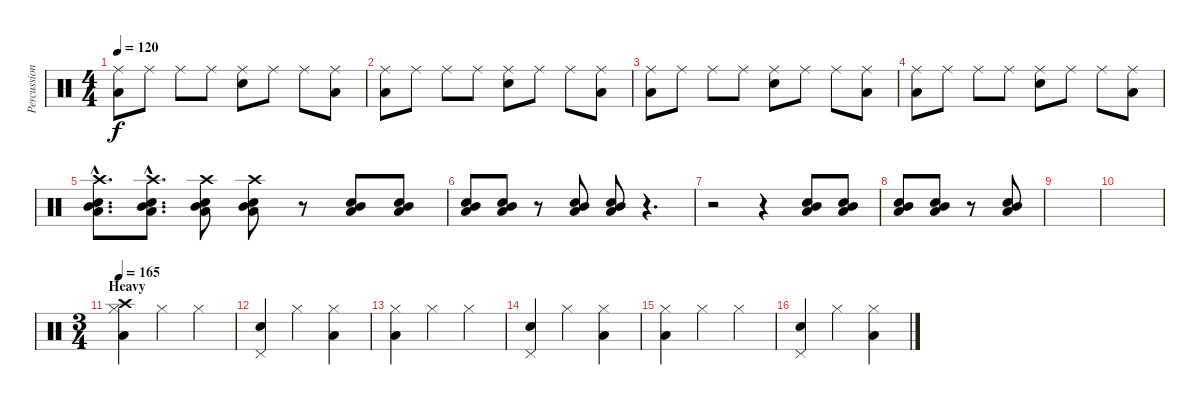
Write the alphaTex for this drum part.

\track ("Percussions" "Percussion") {instrument percussion}
\staff {score}
\articulation defaults
\ts (4 4)
\tempo 120
\clef neutral
\ks c
("Ride (middle)" "Low Floor Tom (hit)").8{dy f} "Ride (middle)".8 "Ride (middle)".8 "Ride (middle)".8 ("Snare (hit) 2" "Ride (middle)").8 "Ride (middle)".8 "Ride (middle)".8 ("Ride (middle)" "Low Floor Tom (hit)").8 |
("Ride (middle)" "Low Floor Tom (hit)").8 "Ride (middle)".8 "Ride (middle)".8 "Ride (middle)".8 ("Snare (hit) 2" "Ride (middle)").8 "Ride (middle)".8 "Ride (middle)".8 ("Ride (middle)" "Low Floor Tom (hit)").8 |
("Ride (middle)" "Low Floor Tom (hit)").8 "Ride (middle)".8 "Ride (middle)".8 "Ride (middle)".8 ("Snare (hit) 2" "Ride (middle)").8 "Ride (middle)".8 "Ride (middle)".8 ("Ride (middle)" "Low Floor Tom (hit)").8 |
("Ride (middle)" "Low Floor Tom (hit)").8 "Ride (middle)".8 "Ride (middle)".8 "Ride (middle)".8 ("Snare (hit) 2" "Ride (middle)").8 "Ride (middle)".8 "Ride (middle)".8 ("Ride (middle)" "Low Floor Tom (hit)").8 |
("Snare (hit) 2"{hac} "Mid Tom (hit)"{hac} "Crash high (hit)"{hac} "Low Floor Tom (hit)"{hac}).8{d} ("Snare (hit) 2"{hac} "Mid Tom (hit)"{hac} "Crash high (hit)"{hac} "Low Floor Tom (hit)"{hac}).8{d} ("Snare (hit) 2" "Mid Tom (hit)" "Crash high (hit)" "Low Floor Tom (hit)").8 ("Snare (hit) 2" "Mid Tom (hit)" "Crash high (hit)" "Low Floor Tom (hit)").8 r.8 ("Snare (hit) 2" "Mid Tom (hit)" "Low Floor Tom (hit)").8 ("Snare (hit) 2" "Mid Tom (hit)" "Low Floor Tom (hit)").8 |
("Snare (hit) 2" "Mid Tom (hit)" "Low Floor Tom (hit)").8 ("Snare (hit) 2" "Mid Tom (hit)" "Low Floor Tom (hit)").8 r.8 ("Snare (hit) 2" "Mid Tom (hit)" "Low Floor Tom (hit)").8 ("Snare (hit) 2" "Mid Tom (hit)" "Low Floor Tom (hit)").8 r.4{d} |
r.2 r.4 ("Snare (hit) 2" "Mid Tom (hit)" "Low Floor Tom (hit)").8 ("Snare (hit) 2" "Mid Tom (hit)" "Low Floor Tom (hit)").8 |
("Snare (hit) 2" "Mid Tom (hit)" "Low Floor Tom (hit)").8 ("Snare (hit) 2" "Mid Tom (hit)" "Low Floor Tom (hit)").8 r.8 ("Snare (hit) 2" "Mid Tom (hit)" "Low Floor Tom (hit)").8 |
|
|
\ts (3 4)
\section ("" "Heavy")
\tempo 165
("Crash high (hit)" "Hi-Hat (closed)" "Low Floor Tom (hit)").4 "Hi-Hat (closed)".4 "Hi-Hat (closed)".4 |
("Snare (hit) 2" "Pedal Hi-Hat (hit)").4 "Hi-Hat (closed)".4 ("Hi-Hat (closed)" "Low Floor Tom (hit)").4 |
("Hi-Hat (closed)" "Low Floor Tom (hit)").4 "Hi-Hat (closed)".4 "Hi-Hat (closed)".4 |
("Snare (hit) 2" "Pedal Hi-Hat (hit)").4 "Hi-Hat (closed)".4 ("Hi-Hat (closed)" "Low Floor Tom (hit)").4 |
("Hi-Hat (closed)" "Low Floor Tom (hit)").4 "Hi-Hat (closed)".4 "Hi-Hat (closed)".4 |
("Snare (hit) 2" "Pedal Hi-Hat (hit)").4 "Hi-Hat (closed)".4 ("Hi-Hat (closed)" "Low Floor Tom (hit)").4
